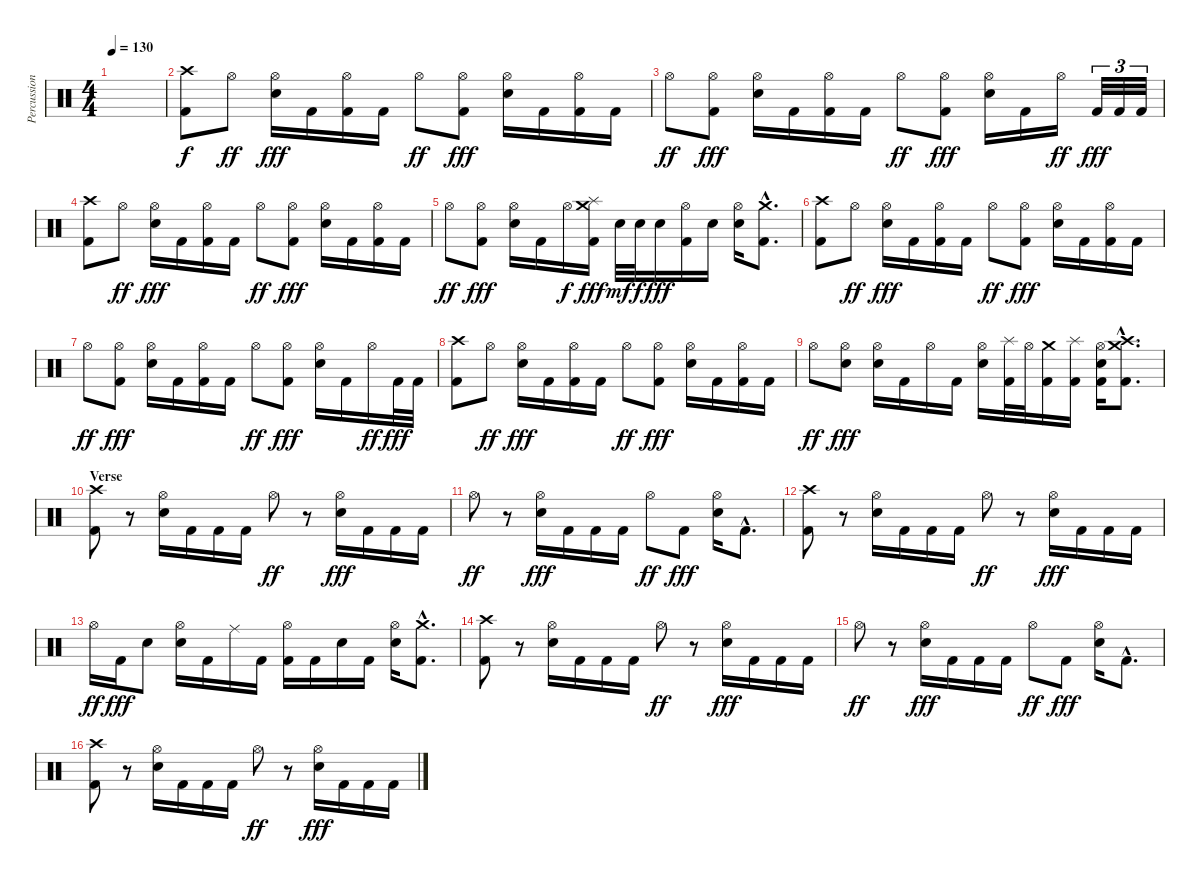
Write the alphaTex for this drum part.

\track ("Percussion" "Percussion") {instrument percussion}
\staff {score}
\articulation defaults
\ts (4 4)
\tempo 130
\clef neutral
\ks c
|
("Crash high (hit)" "Kick (hit) 2").8 "Hi-Hat (open)".8{dy ff} ("Hi-Hat (open)" "Electric Snare (hit)").16{dy fff} "Kick (hit) 2".16 ("Hi-Hat (open)" "Kick (hit) 2").16 "Kick (hit) 2".16 "Hi-Hat (open)".8{dy ff} ("Hi-Hat (open)" "Kick (hit) 2").8{dy fff} ("Hi-Hat (open)" "Electric Snare (hit)").16 "Kick (hit) 2".16 ("Hi-Hat (open)" "Kick (hit) 2").16 "Kick (hit) 2".16 |
"Hi-Hat (open)".8{dy ff} ("Hi-Hat (open)" "Kick (hit) 2").8{dy fff} ("Hi-Hat (open)" "Electric Snare (hit)").16 "Kick (hit) 2".16 ("Hi-Hat (open)" "Kick (hit) 2").16 "Kick (hit) 2".16 "Hi-Hat (open)".8{dy ff} ("Hi-Hat (open)" "Kick (hit) 2").8{dy fff} ("Hi-Hat (open)" "Electric Snare (hit)").16 "Kick (hit) 2".16 "Hi-Hat (open)".16{dy ff} "Kick (hit) 2".32{tu (3 2) dy fff} "Kick (hit) 2".32{tu (3 2)} "Kick (hit) 2".32{tu (3 2)} |
("Crash high (hit)" "Kick (hit) 2").8 "Hi-Hat (open)".8{dy ff} ("Hi-Hat (open)" "Electric Snare (hit)").16{dy fff} "Kick (hit) 2".16 ("Hi-Hat (open)" "Kick (hit) 2").16 "Kick (hit) 2".16 "Hi-Hat (open)".8{dy ff} ("Hi-Hat (open)" "Kick (hit) 2").8{dy fff} ("Hi-Hat (open)" "Electric Snare (hit)").16 "Kick (hit) 2".16 ("Hi-Hat (open)" "Kick (hit) 2").16 "Kick (hit) 2".16 |
"Hi-Hat (open)".8{dy ff} ("Hi-Hat (open)" "Kick (hit) 2").8{dy fff} ("Hi-Hat (open)" "Electric Snare (hit)").16 "Kick (hit) 2".16 "Hi-Hat (open)".16{dy f} ("Splash (hit)" "Crash medium (hit)" "Kick (hit) 2").16{dy fff} "Electric Snare (hit)".32{dy mf} "Electric Snare (hit)".32{dy f} "Electric Snare (hit)".16{dy fff} ("Hi-Hat (open)" "Kick (hit) 2").16 "Electric Snare (hit)".16 ("Hi-Hat (open)" "Electric Snare (hit)").16 ("Crash medium (hit)"{hac} "Kick (hit) 2"{hac}).8{d} |
("Crash high (hit)" "Kick (hit) 2").8 "Hi-Hat (open)".8{dy ff} ("Hi-Hat (open)" "Electric Snare (hit)").16{dy fff} "Kick (hit) 2".16 ("Hi-Hat (open)" "Kick (hit) 2").16 "Kick (hit) 2".16 "Hi-Hat (open)".8{dy ff} ("Hi-Hat (open)" "Kick (hit) 2").8{dy fff} ("Hi-Hat (open)" "Electric Snare (hit)").16 "Kick (hit) 2".16 ("Hi-Hat (open)" "Kick (hit) 2").16 "Kick (hit) 2".16 |
"Hi-Hat (open)".8{dy ff} ("Hi-Hat (open)" "Kick (hit) 2").8{dy fff} ("Hi-Hat (open)" "Electric Snare (hit)").16 "Kick (hit) 2".16 ("Hi-Hat (open)" "Kick (hit) 2").16 "Kick (hit) 2".16 "Hi-Hat (open)".8{dy ff} ("Hi-Hat (open)" "Kick (hit) 2").8{dy fff} ("Hi-Hat (open)" "Electric Snare (hit)").16 "Kick (hit) 2".16 "Hi-Hat (open)".16{dy ff} "Kick (hit) 2".32{dy fff} "Kick (hit) 2".32 |
("Crash high (hit)" "Kick (hit) 2").8 "Hi-Hat (open)".8{dy ff} ("Hi-Hat (open)" "Electric Snare (hit)").16{dy fff} "Kick (hit) 2".16 ("Hi-Hat (open)" "Kick (hit) 2").16 "Kick (hit) 2".16 "Hi-Hat (open)".8{dy ff} ("Hi-Hat (open)" "Kick (hit) 2").8{dy fff} ("Hi-Hat (open)" "Electric Snare (hit)").16 "Kick (hit) 2".16 ("Hi-Hat (open)" "Kick (hit) 2").16 "Kick (hit) 2".16 |
"Hi-Hat (open)".8{dy ff} ("Hi-Hat (open)" "Electric Snare (hit)").8{dy fff} ("Hi-Hat (open)" "Electric Snare (hit)").16 "Kick (hit) 2".16 "Hi-Hat (open)".16 "Kick (hit) 2".16 ("Hi-Hat (open)" "Electric Snare (hit)").16 ("Splash (hit)" "Kick (hit) 2").32 "Hi-Hat (open)".32 ("Crash medium (hit)" "Kick (hit) 2").16 ("Splash (hit)" "Kick (hit) 2").16 ("Hi-Hat (open)" "Electric Snare (hit)" "Kick (hit) 2").16 ("Crash medium (hit)"{hac} "Crash high (hit)"{hac} "Kick (hit) 2"{hac}).8{d} |
\section ("" "Verse")
("Crash high (hit)" "Kick (hit) 2").8 r.8 ("Hi-Hat (open)" "Electric Snare (hit)").16 "Kick (hit) 2".16 "Kick (hit) 2".16 "Kick (hit) 2".16 "Hi-Hat (open)".8{dy ff} r.8 ("Hi-Hat (open)" "Electric Snare (hit)").16{dy fff} "Kick (hit) 2".16 "Kick (hit) 2".16 "Kick (hit) 2".16 |
"Hi-Hat (open)".8{dy ff} r.8 ("Hi-Hat (open)" "Electric Snare (hit)").16{dy fff} "Kick (hit) 2".16 "Kick (hit) 2".16 "Kick (hit) 2".16 "Hi-Hat (open)".8{dy ff} "Kick (hit) 2".8{dy fff} ("Hi-Hat (open)" "Electric Snare (hit)").16 "Kick (hit) 2"{hac}.8{d} |
("Crash high (hit)" "Kick (hit) 2").8 r.8 ("Hi-Hat (open)" "Electric Snare (hit)").16 "Kick (hit) 2".16 "Kick (hit) 2".16 "Kick (hit) 2".16 "Hi-Hat (open)".8{dy ff} r.8 ("Hi-Hat (open)" "Electric Snare (hit)").16{dy fff} "Kick (hit) 2".16 "Kick (hit) 2".16 "Kick (hit) 2".16 |
"Hi-Hat (open)".16{dy ff} "Kick (hit) 2".16{dy fff} "Electric Snare (hit)".8 ("Hi-Hat (open)" "Electric Snare (hit)").16 "Kick (hit) 2".16 "Ride (middle)".16 "Kick (hit) 2".16 ("Hi-Hat (open)" "Kick (hit) 2").16 "Kick (hit) 2".16 "Electric Snare (hit)".16 "Kick (hit) 2".16 ("Hi-Hat (open)" "Electric Snare (hit)").16 ("Crash medium (hit)"{hac} "Kick (hit) 2"{hac}).8{d} |
("Crash high (hit)" "Kick (hit) 2").8 r.8 ("Hi-Hat (open)" "Electric Snare (hit)").16 "Kick (hit) 2".16 "Kick (hit) 2".16 "Kick (hit) 2".16 "Hi-Hat (open)".8{dy ff} r.8 ("Hi-Hat (open)" "Electric Snare (hit)").16{dy fff} "Kick (hit) 2".16 "Kick (hit) 2".16 "Kick (hit) 2".16 |
"Hi-Hat (open)".8{dy ff} r.8 ("Hi-Hat (open)" "Electric Snare (hit)").16{dy fff} "Kick (hit) 2".16 "Kick (hit) 2".16 "Kick (hit) 2".16 "Hi-Hat (open)".8{dy ff} "Kick (hit) 2".8{dy fff} ("Hi-Hat (open)" "Electric Snare (hit)").16 "Kick (hit) 2"{hac}.8{d} |
("Crash high (hit)" "Kick (hit) 2").8 r.8 ("Hi-Hat (open)" "Electric Snare (hit)").16 "Kick (hit) 2".16 "Kick (hit) 2".16 "Kick (hit) 2".16 "Hi-Hat (open)".8{dy ff} r.8 ("Hi-Hat (open)" "Electric Snare (hit)").16{dy fff} "Kick (hit) 2".16 "Kick (hit) 2".16 "Kick (hit) 2".16
